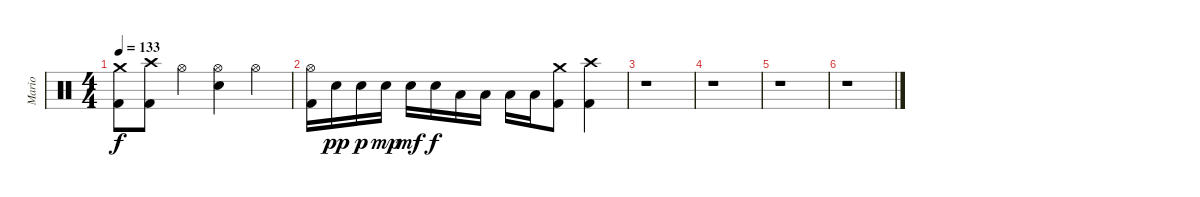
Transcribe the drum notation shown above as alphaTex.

\track ("Mario" "Mario") {instrument percussion}
\staff {score}
\articulation defaults
\ts (4 4)
\tempo 133
\clef neutral
\ks c
("Crash medium (hit)" "Kick (hit) 2").8{dy f} ("Crash high (hit)" "Kick (hit) 2").8 "Hi-Hat (open)".4 ("Hi-Hat (open)" "Electric Snare (hit)").4 "Hi-Hat (open)".4 |
("Hi-Hat (open)" "Kick (hit) 2").16 "Electric Snare (hit)".16{dy pp} "Electric Snare (hit)".16{dy p} "Electric Snare (hit)".16{dy mp} "Electric Snare (hit)".16{dy mf} "Electric Snare (hit)".16{dy f} "Low Tom (hit)".16 "Low Tom (hit)".16 "Low Tom (hit)".16 "Low Tom (hit)".16 ("Crash medium (hit)" "Kick (hit) 2").8 ("Crash high (hit)" "Kick (hit) 2").4 |
r.1 |
r.1 |
r.1 |
r.1
